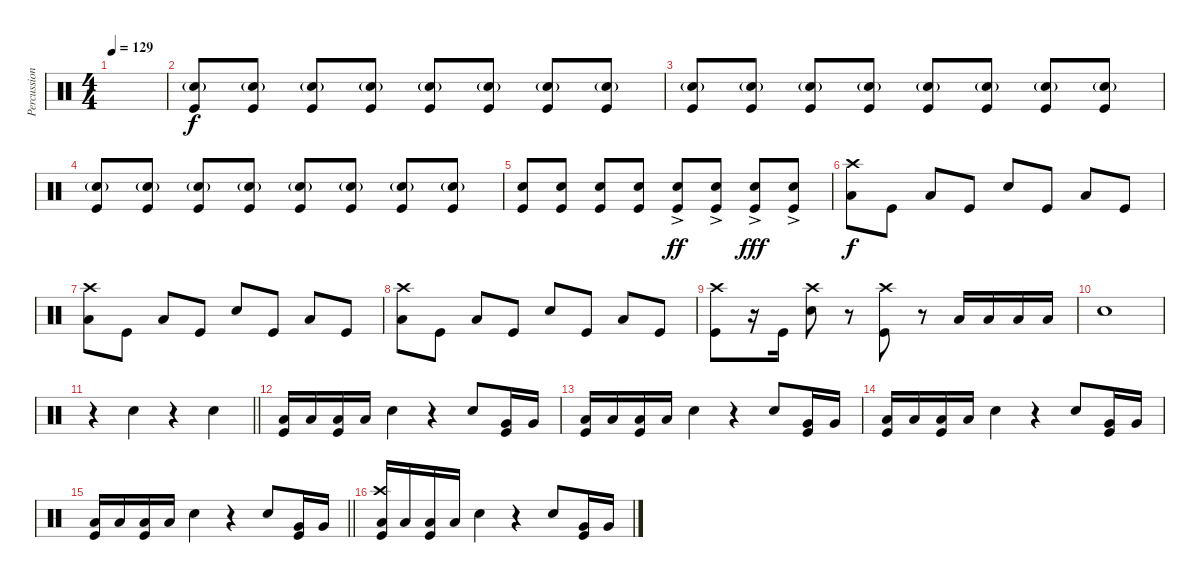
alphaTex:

\track ("Percussion" "Percussion") {instrument percussion}
\staff {score}
\articulation defaults
\ts (4 4)
\tempo 129
\clef neutral
\ks c
|
("Electric Snare (hit)"{g} "Kick (hit)").8 ("Electric Snare (hit)"{g} "Kick (hit)").8 ("Electric Snare (hit)"{g} "Kick (hit)").8 ("Electric Snare (hit)"{g} "Kick (hit)").8 ("Electric Snare (hit)"{g} "Kick (hit)").8 ("Electric Snare (hit)"{g} "Kick (hit)").8 ("Electric Snare (hit)"{g} "Kick (hit)").8 ("Electric Snare (hit)"{g} "Kick (hit)").8 |
("Electric Snare (hit)"{g} "Kick (hit)").8 ("Electric Snare (hit)"{g} "Kick (hit)").8 ("Electric Snare (hit)"{g} "Kick (hit)").8 ("Electric Snare (hit)"{g} "Kick (hit)").8 ("Electric Snare (hit)"{g} "Kick (hit)").8 ("Electric Snare (hit)"{g} "Kick (hit)").8 ("Electric Snare (hit)"{g} "Kick (hit)").8 ("Electric Snare (hit)"{g} "Kick (hit)").8 |
("Electric Snare (hit)"{g} "Kick (hit)").8 ("Electric Snare (hit)"{g} "Kick (hit)").8 ("Electric Snare (hit)"{g} "Kick (hit)").8 ("Electric Snare (hit)"{g} "Kick (hit)").8 ("Electric Snare (hit)"{g} "Kick (hit)").8 ("Electric Snare (hit)"{g} "Kick (hit)").8 ("Electric Snare (hit)"{g} "Kick (hit)").8 ("Electric Snare (hit)"{g} "Kick (hit)").8 |
("Electric Snare (hit)" "Kick (hit)").8{dy f} ("Electric Snare (hit)" "Kick (hit)").8 ("Electric Snare (hit)" "Kick (hit)").8 ("Electric Snare (hit)" "Kick (hit)").8 ("Electric Snare (hit)"{ac} "Kick (hit)").8{dy ff} ("Electric Snare (hit)"{ac} "Kick (hit)").8 ("Electric Snare (hit)"{ac} "Kick (hit)").8{dy fff} ("Electric Snare (hit)"{ac} "Kick (hit)").8 |
("Crash high (hit)" "Low Tom (hit)").8{dy f} "Kick (hit)".8 "Low Floor Tom (hit)".8 "Kick (hit)".8 "Electric Snare (hit)".8 "Kick (hit)".8 "Low Floor Tom (hit)".8 "Kick (hit)".8 |
("Crash high (hit)" "Low Tom (hit)").8 "Kick (hit)".8 "Low Floor Tom (hit)".8 "Kick (hit)".8 "Electric Snare (hit)".8 "Kick (hit)".8 "Low Floor Tom (hit)".8 "Kick (hit)".8 |
("Crash high (hit)" "Low Tom (hit)").8 "Kick (hit)".8 "Low Floor Tom (hit)".8 "Kick (hit)".8 "Electric Snare (hit)".8 "Kick (hit)".8 "Low Floor Tom (hit)".8 "Kick (hit)".8 |
("Crash high (hit)" "Kick (hit)").8 r.16 "Kick (hit)".16 ("Crash high (hit)" "Electric Snare (hit)").8 r.8 ("Crash high (hit)" "Kick (hit)").8 r.8 "Low Tom (hit)".16 "Low Tom (hit)".16 "Low Tom (hit)".16 "Low Tom (hit)".16 |
"Electric Snare (hit)".1 |
\barLineRight lightlight
r.4 "Electric Snare (hit)".4 r.4 "Electric Snare (hit)".4 |
("Low Tom (hit)" "Kick (hit)").16 "Low Tom (hit)".16 ("Low Floor Tom (hit)" "Kick (hit)").16 "Low Floor Tom (hit)".16 "Electric Snare (hit)".4 r.4 "Electric Snare (hit)".8 ("Very Low Tom (hit)" "Kick (hit)").16 "Very Low Tom (hit)".16 |
("Low Tom (hit)" "Kick (hit)").16 "Low Tom (hit)".16 ("Low Floor Tom (hit)" "Kick (hit)").16 "Low Floor Tom (hit)".16 "Electric Snare (hit)".4 r.4 "Electric Snare (hit)".8 ("Very Low Tom (hit)" "Kick (hit)").16 "Very Low Tom (hit)".16 |
("Low Tom (hit)" "Kick (hit)").16 "Low Tom (hit)".16 ("Low Floor Tom (hit)" "Kick (hit)").16 "Low Floor Tom (hit)".16 "Electric Snare (hit)".4 r.4 "Electric Snare (hit)".8 ("Very Low Tom (hit)" "Kick (hit)").16 "Very Low Tom (hit)".16 |
\barLineRight lightlight
("Low Tom (hit)" "Kick (hit)").16 "Low Tom (hit)".16 ("Low Floor Tom (hit)" "Kick (hit)").16 "Low Floor Tom (hit)".16 "Electric Snare (hit)".4 r.4 "Electric Snare (hit)".8 ("Very Low Tom (hit)" "Kick (hit)").16 "Very Low Tom (hit)".16 |
("Crash high (hit)" "Low Tom (hit)" "Kick (hit)").16 "Low Tom (hit)".16 ("Low Floor Tom (hit)" "Kick (hit)").16 "Low Floor Tom (hit)".16 "Electric Snare (hit)".4 r.4 "Electric Snare (hit)".8 ("Very Low Tom (hit)" "Kick (hit)").16 "Very Low Tom (hit)".16
